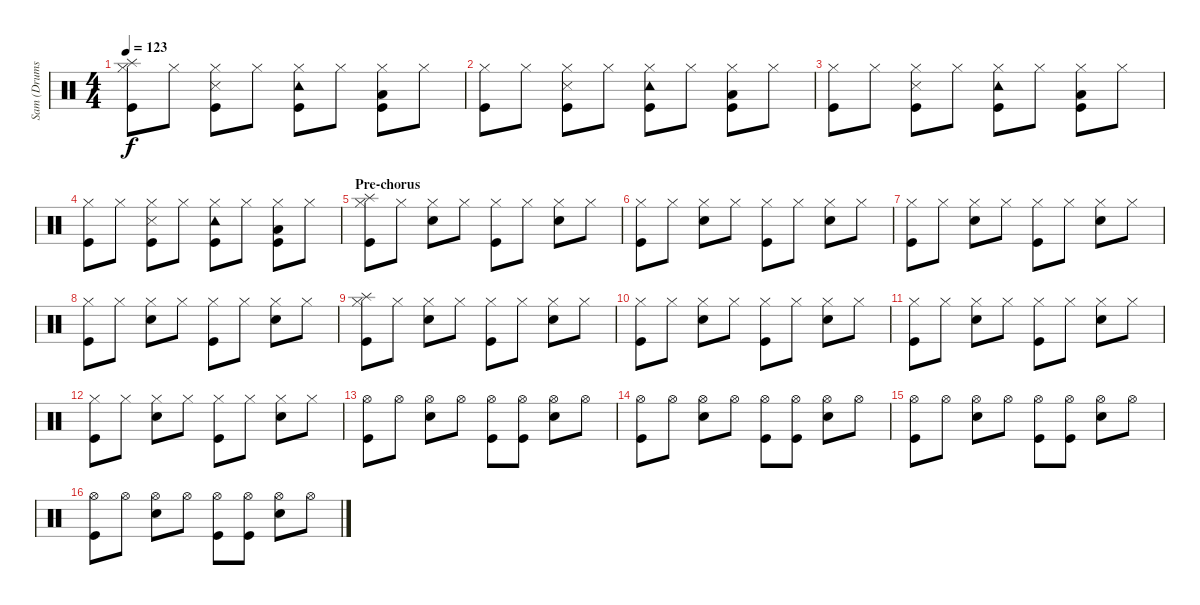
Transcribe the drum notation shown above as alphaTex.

\track ("Sam (Drums)" "Sam (Drums") {instrument percussion}
\staff {score}
\articulation defaults
\ts (4 4)
\tempo 123
\clef neutral
\ks c
("Splash (hit)" "Hi-Hat (closed)" "Kick (hit)").8{dy f} "Hi-Hat (closed)".8 ("Hi-Hat (closed)" "Snare (side stick) 3" "Kick (hit)").8 "Hi-Hat (closed)".8 ("Hi-Hat (closed)" "Tambourine (hit)" "Kick (hit)").8 "Hi-Hat (closed)".8 ("Hi-Hat (closed)" "Low Tom (hit)" "Kick (hit)").8 "Hi-Hat (closed)".8 |
("Hi-Hat (closed)" "Kick (hit)").8 "Hi-Hat (closed)".8 ("Hi-Hat (closed)" "Snare (side stick) 3" "Kick (hit)").8 "Hi-Hat (closed)".8 ("Hi-Hat (closed)" "Tambourine (hit)" "Kick (hit)").8 "Hi-Hat (closed)".8 ("Hi-Hat (closed)" "Low Tom (hit)" "Kick (hit)").8 "Hi-Hat (closed)".8 |
("Hi-Hat (closed)" "Kick (hit)").8 "Hi-Hat (closed)".8 ("Hi-Hat (closed)" "Snare (side stick) 3" "Kick (hit)").8 "Hi-Hat (closed)".8 ("Hi-Hat (closed)" "Tambourine (hit)" "Kick (hit)").8 "Hi-Hat (closed)".8 ("Hi-Hat (closed)" "Low Tom (hit)" "Kick (hit)").8 "Hi-Hat (closed)".8 |
("Hi-Hat (closed)" "Kick (hit)").8 "Hi-Hat (closed)".8 ("Hi-Hat (closed)" "Snare (side stick) 3" "Kick (hit)").8 "Hi-Hat (closed)".8 ("Hi-Hat (closed)" "Tambourine (hit)" "Kick (hit)").8 "Hi-Hat (closed)".8 ("Hi-Hat (closed)" "Low Tom (hit)" "Kick (hit)").8 "Hi-Hat (closed)".8 |
\section ("" "Pre-chorus")
("Splash (hit)" "Hi-Hat (closed)" "Kick (hit)").8 "Hi-Hat (closed)".8 ("Hi-Hat (closed)" "Snare (hit) 2").8 "Hi-Hat (closed)".8 ("Hi-Hat (closed)" "Kick (hit)").8 "Hi-Hat (closed)".8 ("Hi-Hat (closed)" "Snare (hit) 2").8 "Hi-Hat (closed)".8 |
("Hi-Hat (closed)" "Kick (hit)").8 "Hi-Hat (closed)".8 ("Hi-Hat (closed)" "Snare (hit) 2").8 "Hi-Hat (closed)".8 ("Hi-Hat (closed)" "Kick (hit)").8 "Hi-Hat (closed)".8 ("Hi-Hat (closed)" "Snare (hit) 2").8 "Hi-Hat (closed)".8 |
("Hi-Hat (closed)" "Kick (hit)").8 "Hi-Hat (closed)".8 ("Hi-Hat (closed)" "Snare (hit) 2").8 "Hi-Hat (closed)".8 ("Hi-Hat (closed)" "Kick (hit)").8 "Hi-Hat (closed)".8 ("Hi-Hat (closed)" "Snare (hit) 2").8 "Hi-Hat (closed)".8 |
("Hi-Hat (closed)" "Kick (hit)").8 "Hi-Hat (closed)".8 ("Hi-Hat (closed)" "Snare (hit) 2").8 "Hi-Hat (closed)".8 ("Hi-Hat (closed)" "Kick (hit)").8 "Hi-Hat (closed)".8 ("Hi-Hat (closed)" "Snare (hit) 2").8 "Hi-Hat (closed)".8 |
("Splash (hit)" "Hi-Hat (closed)" "Kick (hit)").8 "Hi-Hat (closed)".8 ("Hi-Hat (closed)" "Snare (hit) 2").8 "Hi-Hat (closed)".8 ("Hi-Hat (closed)" "Kick (hit)").8 "Hi-Hat (closed)".8 ("Hi-Hat (closed)" "Snare (hit) 2").8 "Hi-Hat (closed)".8 |
("Hi-Hat (closed)" "Kick (hit)").8 "Hi-Hat (closed)".8 ("Hi-Hat (closed)" "Snare (hit) 2").8 "Hi-Hat (closed)".8 ("Hi-Hat (closed)" "Kick (hit)").8 "Hi-Hat (closed)".8 ("Hi-Hat (closed)" "Snare (hit) 2").8 "Hi-Hat (closed)".8 |
("Hi-Hat (closed)" "Kick (hit)").8 "Hi-Hat (closed)".8 ("Hi-Hat (closed)" "Snare (hit) 2").8 "Hi-Hat (closed)".8 ("Hi-Hat (closed)" "Kick (hit)").8 "Hi-Hat (closed)".8 ("Hi-Hat (closed)" "Snare (hit) 2").8 "Hi-Hat (closed)".8 |
("Hi-Hat (closed)" "Kick (hit)").8 "Hi-Hat (closed)".8 ("Hi-Hat (closed)" "Snare (hit) 2").8 "Hi-Hat (closed)".8 ("Hi-Hat (closed)" "Kick (hit)").8 "Hi-Hat (closed)".8 ("Hi-Hat (closed)" "Snare (hit) 2").8 "Hi-Hat (closed)".8 |
("Hi-Hat (open)" "Kick (hit)").8 "Hi-Hat (open)".8 ("Hi-Hat (open)" "Snare (hit) 2").8 "Hi-Hat (open)".8 ("Hi-Hat (open)" "Kick (hit)").8 ("Hi-Hat (open)" "Kick (hit)").8 ("Hi-Hat (open)" "Snare (hit) 2").8 "Hi-Hat (open)".8 |
("Hi-Hat (open)" "Kick (hit)").8 "Hi-Hat (open)".8 ("Hi-Hat (open)" "Snare (hit) 2").8 "Hi-Hat (open)".8 ("Hi-Hat (open)" "Kick (hit)").8 ("Hi-Hat (open)" "Kick (hit)").8 ("Hi-Hat (open)" "Snare (hit) 2").8 "Hi-Hat (open)".8 |
("Hi-Hat (open)" "Kick (hit)").8 "Hi-Hat (open)".8 ("Hi-Hat (open)" "Snare (hit) 2").8 "Hi-Hat (open)".8 ("Hi-Hat (open)" "Kick (hit)").8 ("Hi-Hat (open)" "Kick (hit)").8 ("Hi-Hat (open)" "Snare (hit) 2").8 "Hi-Hat (open)".8 |
("Hi-Hat (open)" "Kick (hit)").8 "Hi-Hat (open)".8 ("Hi-Hat (open)" "Snare (hit) 2").8 "Hi-Hat (open)".8 ("Hi-Hat (open)" "Kick (hit)").8 ("Hi-Hat (open)" "Kick (hit)").8 ("Hi-Hat (open)" "Snare (hit) 2").8 "Hi-Hat (open)".8
